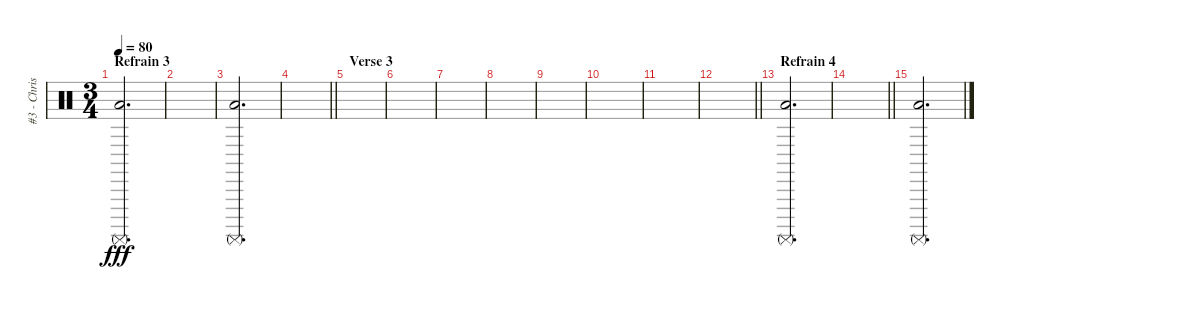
\track ("#3 - Chris Fehn" "#3 - Chris") {instrument percussion}
\staff {score}
\articulation defaults
\ts (3 4)
\section ("" "Refrain 3")
\tempo 80
\clef neutral
\ks c
("Low Floor Tom (hit)" "Surdo (mute)").2{d dy fff volume 16} |
|
("Low Floor Tom (hit)" "Surdo (mute)").2{d} |
\barLineRight lightlight
|
\section ("" "Verse 3")
|
|
|
|
|
|
|
\barLineRight lightlight
|
\section ("" "Refrain 4")
("Low Floor Tom (hit)" "Surdo (mute)").2{d volume 16} |
\barLineRight lightlight
|
("Low Floor Tom (hit)" "Surdo (mute)").2{d}
